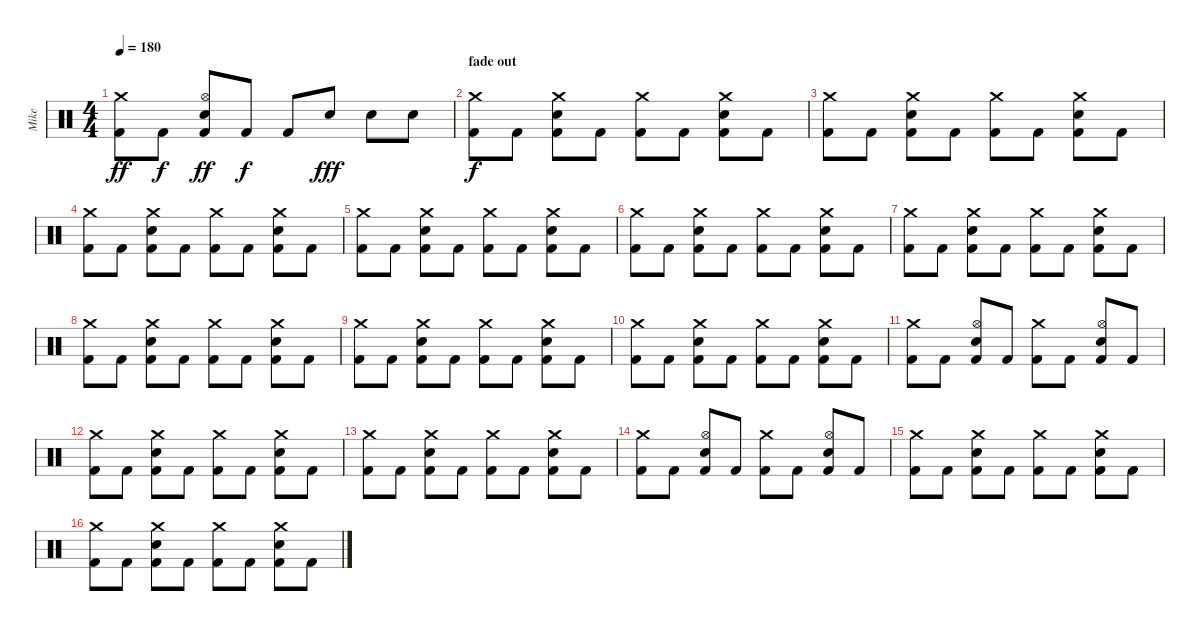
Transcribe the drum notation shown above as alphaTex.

\track ("Mike" "Mike") {instrument percussion}
\staff {score}
\articulation defaults
\ts (4 4)
\tempo 180
\clef neutral
\ks c
("Crash medium (hit)" "Kick (hit) 2").8{dy ff} "Kick (hit) 2".8{dy f} ("Hi-Hat (open)" "Snare (hit) 2" "Kick (hit) 2").8{dy ff} "Kick (hit) 2".8{dy f} "Kick (hit) 2".8 "Snare (hit) 2".8{dy fff} "Snare (hit) 2".8 "Snare (hit) 2".8 |
\section ("" "fade out")
("Crash medium (hit)" "Kick (hit) 2").8{dy f volume 12} "Kick (hit) 2".8 ("Crash medium (hit)" "Snare (hit) 2" "Kick (hit) 2").8 "Kick (hit) 2".8 ("Crash medium (hit)" "Kick (hit) 2").8 "Kick (hit) 2".8 ("Crash medium (hit)" "Snare (hit) 2" "Kick (hit) 2").8 "Kick (hit) 2".8 |
("Crash medium (hit)" "Kick (hit) 2").8 "Kick (hit) 2".8 ("Crash medium (hit)" "Snare (hit) 2" "Kick (hit) 2").8 "Kick (hit) 2".8 ("Crash medium (hit)" "Kick (hit) 2").8 "Kick (hit) 2".8 ("Crash medium (hit)" "Snare (hit) 2" "Kick (hit) 2").8 "Kick (hit) 2".8 |
("Crash medium (hit)" "Kick (hit) 2").8 "Kick (hit) 2".8 ("Crash medium (hit)" "Snare (hit) 2" "Kick (hit) 2").8 "Kick (hit) 2".8 ("Crash medium (hit)" "Kick (hit) 2").8 "Kick (hit) 2".8 ("Crash medium (hit)" "Snare (hit) 2" "Kick (hit) 2").8 "Kick (hit) 2".8 |
("Crash medium (hit)" "Kick (hit) 2").8{volume 12} "Kick (hit) 2".8 ("Crash medium (hit)" "Snare (hit) 2" "Kick (hit) 2").8 "Kick (hit) 2".8 ("Crash medium (hit)" "Kick (hit) 2").8 "Kick (hit) 2".8 ("Crash medium (hit)" "Snare (hit) 2" "Kick (hit) 2").8 "Kick (hit) 2".8 |
("Crash medium (hit)" "Kick (hit) 2").8 "Kick (hit) 2".8 ("Crash medium (hit)" "Snare (hit) 2" "Kick (hit) 2").8 "Kick (hit) 2".8 ("Crash medium (hit)" "Kick (hit) 2").8 "Kick (hit) 2".8 ("Crash medium (hit)" "Snare (hit) 2" "Kick (hit) 2").8 "Kick (hit) 2".8 |
("Crash medium (hit)" "Kick (hit) 2").8 "Kick (hit) 2".8 ("Crash medium (hit)" "Snare (hit) 2" "Kick (hit) 2").8 "Kick (hit) 2".8 ("Crash medium (hit)" "Kick (hit) 2").8 "Kick (hit) 2".8 ("Crash medium (hit)" "Snare (hit) 2" "Kick (hit) 2").8 "Kick (hit) 2".8 |
("Crash medium (hit)" "Kick (hit) 2").8{volume 10} "Kick (hit) 2".8 ("Crash medium (hit)" "Snare (hit) 2" "Kick (hit) 2").8 "Kick (hit) 2".8 ("Crash medium (hit)" "Kick (hit) 2").8 "Kick (hit) 2".8 ("Crash medium (hit)" "Snare (hit) 2" "Kick (hit) 2").8 "Kick (hit) 2".8 |
("Crash medium (hit)" "Kick (hit) 2").8 "Kick (hit) 2".8 ("Crash medium (hit)" "Snare (hit) 2" "Kick (hit) 2").8 "Kick (hit) 2".8 ("Crash medium (hit)" "Kick (hit) 2").8 "Kick (hit) 2".8 ("Crash medium (hit)" "Snare (hit) 2" "Kick (hit) 2").8 "Kick (hit) 2".8 |
("Crash medium (hit)" "Kick (hit) 2").8 "Kick (hit) 2".8 ("Crash medium (hit)" "Snare (hit) 2" "Kick (hit) 2").8 "Kick (hit) 2".8 ("Crash medium (hit)" "Kick (hit) 2").8 "Kick (hit) 2".8 ("Crash medium (hit)" "Snare (hit) 2" "Kick (hit) 2").8 "Kick (hit) 2".8 |
("Crash medium (hit)" "Kick (hit) 2").8{volume 9} "Kick (hit) 2".8 ("Hi-Hat (open)" "Snare (hit) 2" "Kick (hit) 2").8 "Kick (hit) 2".8 ("Crash medium (hit)" "Kick (hit) 2").8 "Kick (hit) 2".8 ("Hi-Hat (open)" "Snare (hit) 2" "Kick (hit) 2").8 "Kick (hit) 2".8 |
("Crash medium (hit)" "Kick (hit) 2").8 "Kick (hit) 2".8 ("Crash medium (hit)" "Snare (hit) 2" "Kick (hit) 2").8 "Kick (hit) 2".8 ("Crash medium (hit)" "Kick (hit) 2").8 "Kick (hit) 2".8 ("Crash medium (hit)" "Snare (hit) 2" "Kick (hit) 2").8 "Kick (hit) 2".8 |
("Crash medium (hit)" "Kick (hit) 2").8 "Kick (hit) 2".8 ("Crash medium (hit)" "Snare (hit) 2" "Kick (hit) 2").8 "Kick (hit) 2".8 ("Crash medium (hit)" "Kick (hit) 2").8 "Kick (hit) 2".8 ("Crash medium (hit)" "Snare (hit) 2" "Kick (hit) 2").8 "Kick (hit) 2".8 |
("Crash medium (hit)" "Kick (hit) 2").8{volume 8} "Kick (hit) 2".8 ("Hi-Hat (open)" "Snare (hit) 2" "Kick (hit) 2").8 "Kick (hit) 2".8 ("Crash medium (hit)" "Kick (hit) 2").8 "Kick (hit) 2".8 ("Hi-Hat (open)" "Snare (hit) 2" "Kick (hit) 2").8 "Kick (hit) 2".8 |
("Crash medium (hit)" "Kick (hit) 2").8 "Kick (hit) 2".8 ("Crash medium (hit)" "Snare (hit) 2" "Kick (hit) 2").8 "Kick (hit) 2".8 ("Crash medium (hit)" "Kick (hit) 2").8 "Kick (hit) 2".8 ("Crash medium (hit)" "Snare (hit) 2" "Kick (hit) 2").8 "Kick (hit) 2".8 |
("Crash medium (hit)" "Kick (hit) 2").8 "Kick (hit) 2".8 ("Crash medium (hit)" "Snare (hit) 2" "Kick (hit) 2").8 "Kick (hit) 2".8 ("Crash medium (hit)" "Kick (hit) 2").8 "Kick (hit) 2".8 ("Crash medium (hit)" "Snare (hit) 2" "Kick (hit) 2").8 "Kick (hit) 2".8
